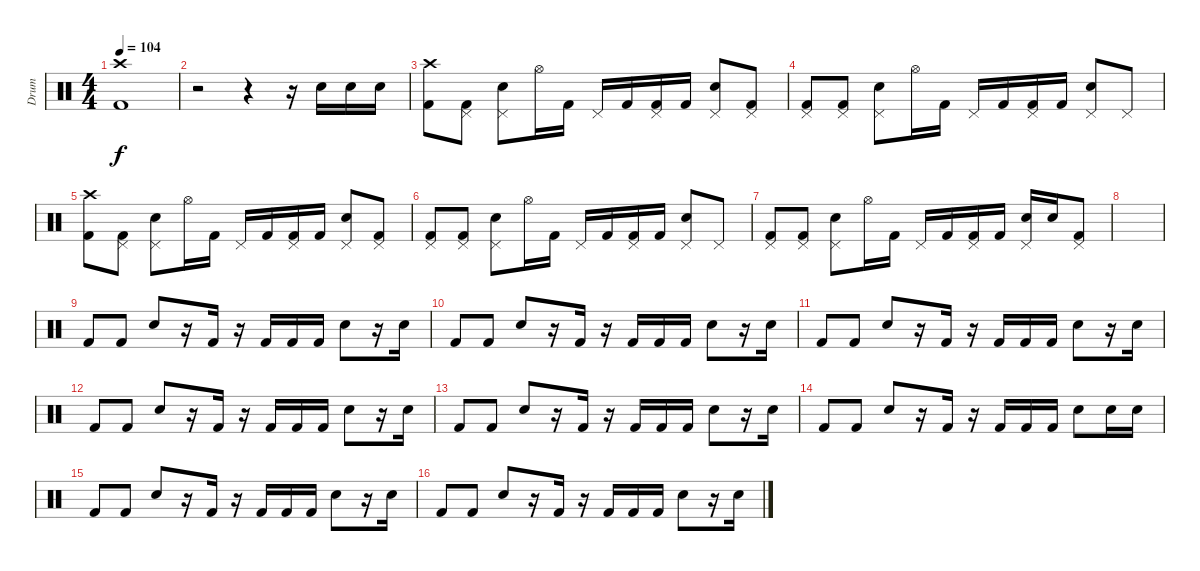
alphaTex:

\track ("Drum" "Drum") {instrument percussion}
\staff {score}
\articulation defaults
\ts (4 4)
\tempo 104
\clef neutral
\ks c
("Crash high (hit)" "Kick (hit) 2").1{dy f} |
r.2 r.4 r.16 "Snare (hit) 2".16 "Snare (hit) 2".16 "Snare (hit) 2".16 |
("Crash high (hit)" "Kick (hit) 2").8 ("Pedal Hi-Hat (hit)" "Kick (hit) 2").8 ("Pedal Hi-Hat (hit)" "Snare (hit) 2").8 "Hi-Hat (open)".16 "Kick (hit) 2".16 "Pedal Hi-Hat (hit)".16 "Kick (hit) 2".16 ("Pedal Hi-Hat (hit)" "Kick (hit) 2").16 "Kick (hit) 2".16 ("Pedal Hi-Hat (hit)" "Snare (hit) 2").8 ("Pedal Hi-Hat (hit)" "Kick (hit) 2").8 |
("Pedal Hi-Hat (hit)" "Kick (hit) 2").8 ("Pedal Hi-Hat (hit)" "Kick (hit) 2").8 ("Pedal Hi-Hat (hit)" "Snare (hit) 2").8 "Hi-Hat (open)".16 "Kick (hit) 2".16 "Pedal Hi-Hat (hit)".16 "Kick (hit) 2".16 ("Pedal Hi-Hat (hit)" "Kick (hit) 2").16 "Kick (hit) 2".16 ("Pedal Hi-Hat (hit)" "Snare (hit) 2").8 "Pedal Hi-Hat (hit)".8 |
("Crash high (hit)" "Kick (hit) 2").8 ("Pedal Hi-Hat (hit)" "Kick (hit) 2").8 ("Pedal Hi-Hat (hit)" "Snare (hit) 2").8 "Hi-Hat (open)".16 "Kick (hit) 2".16 "Pedal Hi-Hat (hit)".16 "Kick (hit) 2".16 ("Pedal Hi-Hat (hit)" "Kick (hit) 2").16 "Kick (hit) 2".16 ("Pedal Hi-Hat (hit)" "Snare (hit) 2").8 ("Pedal Hi-Hat (hit)" "Kick (hit) 2").8 |
("Pedal Hi-Hat (hit)" "Kick (hit) 2").8 ("Pedal Hi-Hat (hit)" "Kick (hit) 2").8 ("Pedal Hi-Hat (hit)" "Snare (hit) 2").8 "Hi-Hat (open)".16 "Kick (hit) 2".16 "Pedal Hi-Hat (hit)".16 "Kick (hit) 2".16 ("Pedal Hi-Hat (hit)" "Kick (hit) 2").16 "Kick (hit) 2".16 ("Pedal Hi-Hat (hit)" "Snare (hit) 2").8 "Pedal Hi-Hat (hit)".8 |
("Pedal Hi-Hat (hit)" "Kick (hit) 2").8 ("Pedal Hi-Hat (hit)" "Kick (hit) 2").8 ("Pedal Hi-Hat (hit)" "Snare (hit) 2").8 "Hi-Hat (open)".16 "Kick (hit) 2".16 "Pedal Hi-Hat (hit)".16 "Kick (hit) 2".16 ("Pedal Hi-Hat (hit)" "Kick (hit) 2").16 "Kick (hit) 2".16 ("Pedal Hi-Hat (hit)" "Snare (hit) 2").16 "Snare (hit) 2".16 ("Pedal Hi-Hat (hit)" "Kick (hit) 2").8 |
|
"Kick (hit) 2".8 "Kick (hit) 2".8 "Snare (hit) 2".8 r.16 "Kick (hit) 2".16 r.16 "Kick (hit) 2".16 "Kick (hit) 2".16 "Kick (hit) 2".16 "Snare (hit) 2".8 r.16 "Snare (hit) 2".16 |
"Kick (hit) 2".8 "Kick (hit) 2".8 "Snare (hit) 2".8 r.16 "Kick (hit) 2".16 r.16 "Kick (hit) 2".16 "Kick (hit) 2".16 "Kick (hit) 2".16 "Snare (hit) 2".8 r.16 "Snare (hit) 2".16 |
"Kick (hit) 2".8 "Kick (hit) 2".8 "Snare (hit) 2".8 r.16 "Kick (hit) 2".16 r.16 "Kick (hit) 2".16 "Kick (hit) 2".16 "Kick (hit) 2".16 "Snare (hit) 2".8 r.16 "Snare (hit) 2".16 |
"Kick (hit) 2".8 "Kick (hit) 2".8 "Snare (hit) 2".8 r.16 "Kick (hit) 2".16 r.16 "Kick (hit) 2".16 "Kick (hit) 2".16 "Kick (hit) 2".16 "Snare (hit) 2".8 r.16 "Snare (hit) 2".16 |
"Kick (hit) 2".8 "Kick (hit) 2".8 "Snare (hit) 2".8 r.16 "Kick (hit) 2".16 r.16 "Kick (hit) 2".16 "Kick (hit) 2".16 "Kick (hit) 2".16 "Snare (hit) 2".8 r.16 "Snare (hit) 2".16 |
"Kick (hit) 2".8 "Kick (hit) 2".8 "Snare (hit) 2".8 r.16 "Kick (hit) 2".16 r.16 "Kick (hit) 2".16 "Kick (hit) 2".16 "Kick (hit) 2".16 "Snare (hit) 2".8 "Snare (hit) 2".16 "Snare (hit) 2".16 |
"Kick (hit) 2".8 "Kick (hit) 2".8 "Snare (hit) 2".8 r.16 "Kick (hit) 2".16 r.16 "Kick (hit) 2".16 "Kick (hit) 2".16 "Kick (hit) 2".16 "Snare (hit) 2".8 r.16 "Snare (hit) 2".16 |
"Kick (hit) 2".8 "Kick (hit) 2".8 "Snare (hit) 2".8 r.16 "Kick (hit) 2".16 r.16 "Kick (hit) 2".16 "Kick (hit) 2".16 "Kick (hit) 2".16 "Snare (hit) 2".8 r.16 "Snare (hit) 2".16
